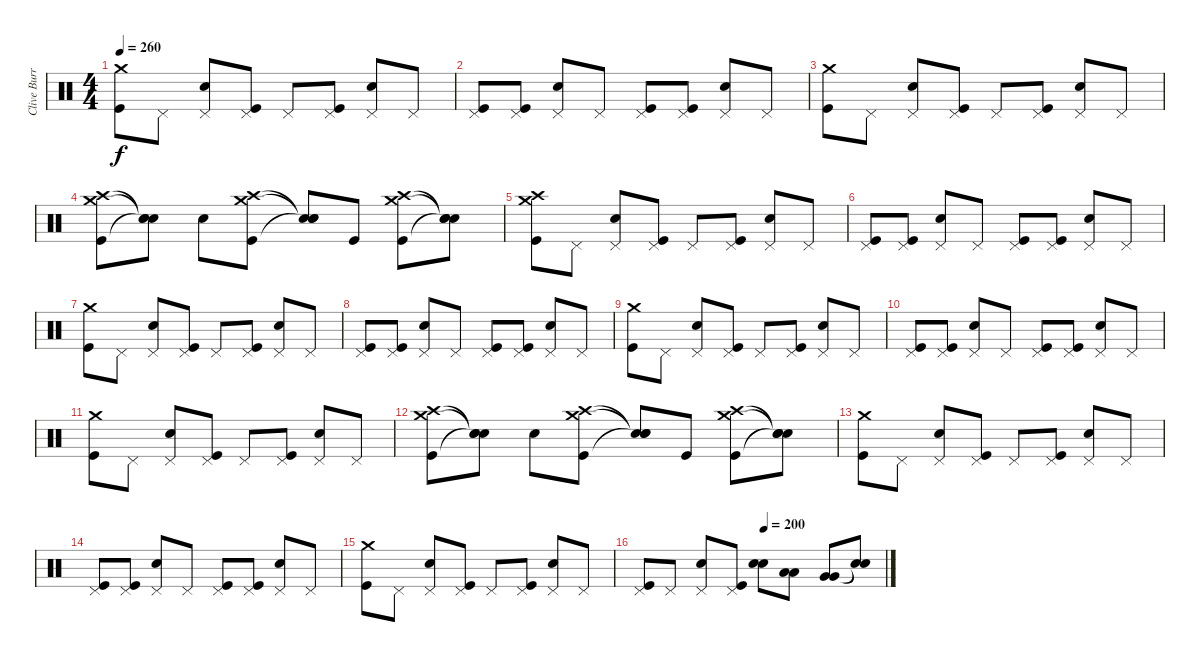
\track ("Clive Burr" "Clive Burr") {instrument percussion}
\staff {score}
\articulation defaults
\ts (4 4)
\tempo 260
\clef neutral
\ks c
("Crash medium (hit)" "Kick (hit)").8{dy f} "Pedal Hi-Hat (hit)".8 ("Pedal Hi-Hat (hit)" "Snare (hit) 2").8 ("Pedal Hi-Hat (hit)" "Kick (hit)").8 "Pedal Hi-Hat (hit)".8 ("Pedal Hi-Hat (hit)" "Kick (hit)").8 ("Pedal Hi-Hat (hit)" "Snare (hit) 2").8 "Pedal Hi-Hat (hit)".8 |
("Pedal Hi-Hat (hit)" "Kick (hit)").8 ("Pedal Hi-Hat (hit)" "Kick (hit)").8 ("Pedal Hi-Hat (hit)" "Snare (hit) 2").8 "Pedal Hi-Hat (hit)".8 ("Pedal Hi-Hat (hit)" "Kick (hit)").8 ("Pedal Hi-Hat (hit)" "Kick (hit)").8 ("Pedal Hi-Hat (hit)" "Snare (hit) 2").8 "Pedal Hi-Hat (hit)".8 |
("Crash medium (hit)" "Kick (hit)").8 "Pedal Hi-Hat (hit)".8 ("Pedal Hi-Hat (hit)" "Snare (hit) 2").8 ("Pedal Hi-Hat (hit)" "Kick (hit)").8 "Pedal Hi-Hat (hit)".8 ("Pedal Hi-Hat (hit)" "Kick (hit)").8 ("Pedal Hi-Hat (hit)" "Snare (hit) 2").8 "Pedal Hi-Hat (hit)".8 |
("Crash medium (hit)" "Crash high (hit)" "Kick (hit)").8 ("Snare (hit)"{t} "Snare (hit)"{t} "Snare (hit)"{t}).8 "Snare (hit) 2".8 ("Crash medium (hit)" "Crash high (hit)" "Kick (hit)").8 ("Snare (hit)"{t} "Snare (hit)"{t} "Snare (hit)"{t}).8 "Kick (hit)".8 ("Crash medium (hit)" "Crash high (hit)" "Kick (hit)").8 ("Snare (hit)"{t} "Snare (hit)"{t} "Snare (hit)"{t}).8 |
("Crash medium (hit)" "Crash high (hit)" "Kick (hit)").8 "Pedal Hi-Hat (hit)".8 ("Pedal Hi-Hat (hit)" "Snare (hit) 2").8 ("Pedal Hi-Hat (hit)" "Kick (hit)").8 "Pedal Hi-Hat (hit)".8 ("Pedal Hi-Hat (hit)" "Kick (hit)").8 ("Pedal Hi-Hat (hit)" "Snare (hit) 2").8 "Pedal Hi-Hat (hit)".8 |
("Pedal Hi-Hat (hit)" "Kick (hit)").8 ("Pedal Hi-Hat (hit)" "Kick (hit)").8 ("Pedal Hi-Hat (hit)" "Snare (hit) 2").8 "Pedal Hi-Hat (hit)".8 ("Pedal Hi-Hat (hit)" "Kick (hit)").8 ("Pedal Hi-Hat (hit)" "Kick (hit)").8 ("Pedal Hi-Hat (hit)" "Snare (hit) 2").8 "Pedal Hi-Hat (hit)".8 |
("Crash medium (hit)" "Kick (hit)").8 "Pedal Hi-Hat (hit)".8 ("Pedal Hi-Hat (hit)" "Snare (hit) 2").8 ("Pedal Hi-Hat (hit)" "Kick (hit)").8 "Pedal Hi-Hat (hit)".8 ("Pedal Hi-Hat (hit)" "Kick (hit)").8 ("Pedal Hi-Hat (hit)" "Snare (hit) 2").8 "Pedal Hi-Hat (hit)".8 |
("Pedal Hi-Hat (hit)" "Kick (hit)").8 ("Pedal Hi-Hat (hit)" "Kick (hit)").8 ("Pedal Hi-Hat (hit)" "Snare (hit) 2").8 "Pedal Hi-Hat (hit)".8 ("Pedal Hi-Hat (hit)" "Kick (hit)").8 ("Pedal Hi-Hat (hit)" "Kick (hit)").8 ("Pedal Hi-Hat (hit)" "Snare (hit) 2").8 "Pedal Hi-Hat (hit)".8 |
("Crash medium (hit)" "Kick (hit)").8 "Pedal Hi-Hat (hit)".8 ("Pedal Hi-Hat (hit)" "Snare (hit) 2").8 ("Pedal Hi-Hat (hit)" "Kick (hit)").8 "Pedal Hi-Hat (hit)".8 ("Pedal Hi-Hat (hit)" "Kick (hit)").8 ("Pedal Hi-Hat (hit)" "Snare (hit) 2").8 "Pedal Hi-Hat (hit)".8 |
("Pedal Hi-Hat (hit)" "Kick (hit)").8 ("Pedal Hi-Hat (hit)" "Kick (hit)").8 ("Pedal Hi-Hat (hit)" "Snare (hit) 2").8 "Pedal Hi-Hat (hit)".8 ("Pedal Hi-Hat (hit)" "Kick (hit)").8 ("Pedal Hi-Hat (hit)" "Kick (hit)").8 ("Pedal Hi-Hat (hit)" "Snare (hit) 2").8 "Pedal Hi-Hat (hit)".8 |
("Crash medium (hit)" "Kick (hit)").8 "Pedal Hi-Hat (hit)".8 ("Pedal Hi-Hat (hit)" "Snare (hit) 2").8 ("Pedal Hi-Hat (hit)" "Kick (hit)").8 "Pedal Hi-Hat (hit)".8 ("Pedal Hi-Hat (hit)" "Kick (hit)").8 ("Pedal Hi-Hat (hit)" "Snare (hit) 2").8 "Pedal Hi-Hat (hit)".8 |
("Crash medium (hit)" "Crash high (hit)" "Kick (hit)").8 ("Snare (hit)"{t} "Snare (hit)"{t} "Snare (hit)"{t}).8 "Snare (hit) 2".8 ("Crash medium (hit)" "Crash high (hit)" "Kick (hit)").8 ("Snare (hit)"{t} "Snare (hit)"{t} "Snare (hit)"{t}).8 "Kick (hit)".8 ("Crash medium (hit)" "Crash high (hit)" "Kick (hit)").8 ("Snare (hit)"{t} "Snare (hit)"{t} "Snare (hit)"{t}).8 |
("Crash medium (hit)" "Kick (hit)").8 "Pedal Hi-Hat (hit)".8 ("Pedal Hi-Hat (hit)" "Snare (hit) 2").8 ("Pedal Hi-Hat (hit)" "Kick (hit)").8 "Pedal Hi-Hat (hit)".8 ("Pedal Hi-Hat (hit)" "Kick (hit)").8 ("Pedal Hi-Hat (hit)" "Snare (hit) 2").8 "Pedal Hi-Hat (hit)".8 |
("Pedal Hi-Hat (hit)" "Kick (hit)").8 ("Pedal Hi-Hat (hit)" "Kick (hit)").8 ("Pedal Hi-Hat (hit)" "Snare (hit) 2").8 "Pedal Hi-Hat (hit)".8 ("Pedal Hi-Hat (hit)" "Kick (hit)").8 ("Pedal Hi-Hat (hit)" "Kick (hit)").8 ("Pedal Hi-Hat (hit)" "Snare (hit) 2").8 "Pedal Hi-Hat (hit)".8 |
("Crash medium (hit)" "Kick (hit)").8 "Pedal Hi-Hat (hit)".8 ("Pedal Hi-Hat (hit)" "Snare (hit) 2").8 ("Pedal Hi-Hat (hit)" "Kick (hit)").8 "Pedal Hi-Hat (hit)".8 ("Pedal Hi-Hat (hit)" "Kick (hit)").8 ("Pedal Hi-Hat (hit)" "Snare (hit) 2").8 "Pedal Hi-Hat (hit)".8 |
\tempo (200 0.5)
("Pedal Hi-Hat (hit)" "Kick (hit)").8 "Pedal Hi-Hat (hit)".8 ("Pedal Hi-Hat (hit)" "Snare (hit) 2").8 ("Pedal Hi-Hat (hit)" "Kick (hit)").8 ("Snare (hit) 2" "Snare (hit) 2").8 ("Low Tom (hit)" "Low Tom (hit)").8 ("Very Low Tom (hit)" "Very Low Tom (hit)").8 ("Snare (hit)"{t} "Snare (hit)"{t}).8
